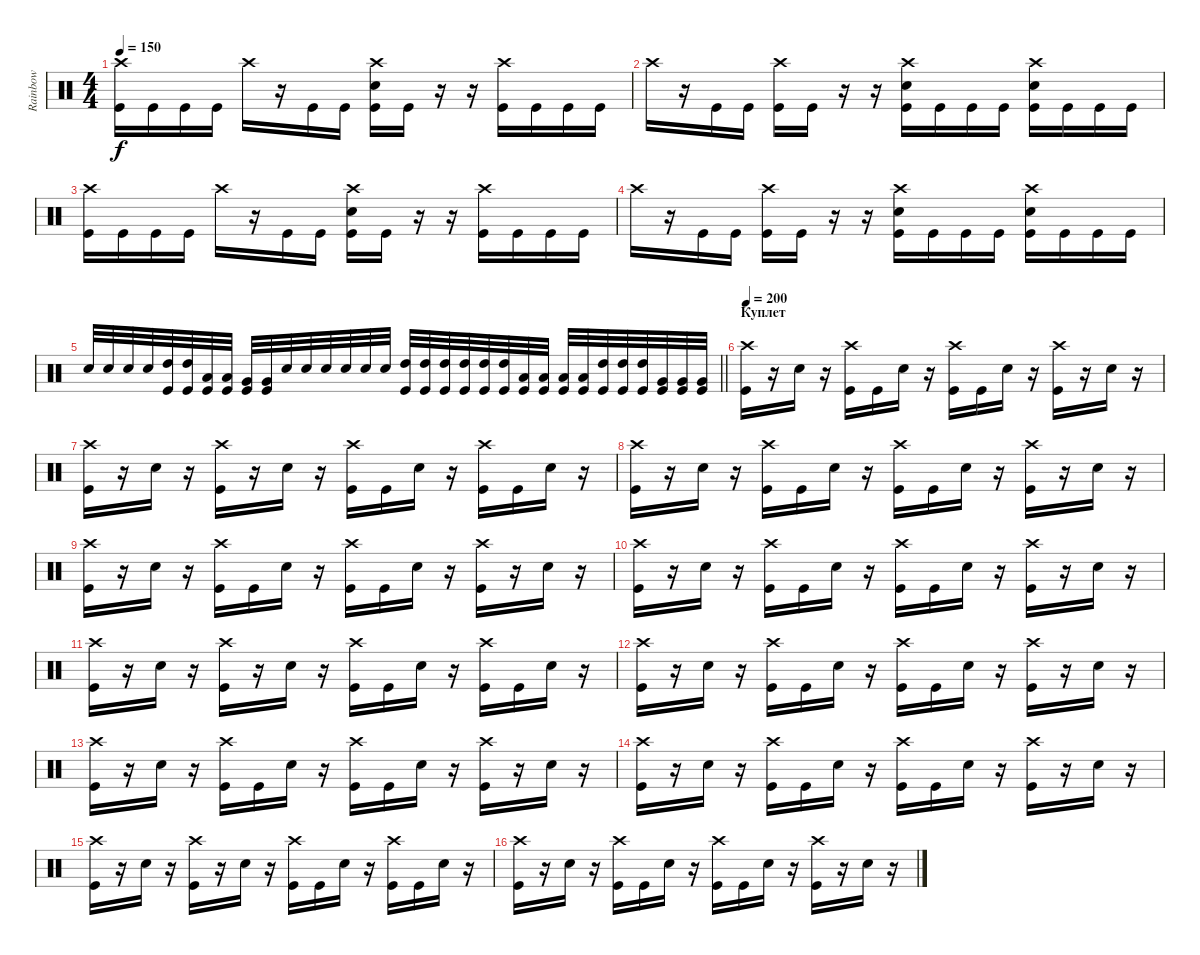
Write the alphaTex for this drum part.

\track ("Rainbow" "Rainbow") {instrument percussion}
\staff {score}
\articulation defaults
\ts (4 4)
\tempo 150
\clef neutral
\ks c
("Crash high (hit)" "Kick (hit)").16{dy f} "Kick (hit)".16 "Kick (hit)".16 "Kick (hit)".16 "Crash high (hit)".16 r.16 "Kick (hit)".16 "Kick (hit)".16 ("Crash high (hit)" "Electric Snare (hit)" "Kick (hit)").16 "Kick (hit)".16 r.16 r.16 ("Crash high (hit)" "Kick (hit)").16 "Kick (hit)".16 "Kick (hit)".16 "Kick (hit)".16 |
"Crash high (hit)".16 r.16 "Kick (hit)".16 "Kick (hit)".16 ("Crash high (hit)" "Kick (hit)").16 "Kick (hit)".16 r.16 r.16 ("Crash high (hit)" "Electric Snare (hit)" "Kick (hit)").16 "Kick (hit)".16 "Kick (hit)".16 "Kick (hit)".16 ("Crash high (hit)" "Electric Snare (hit)" "Kick (hit)").16 "Kick (hit)".16 "Kick (hit)".16 "Kick (hit)".16 |
("Crash high (hit)" "Kick (hit)").16 "Kick (hit)".16 "Kick (hit)".16 "Kick (hit)".16 "Crash high (hit)".16 r.16 "Kick (hit)".16 "Kick (hit)".16 ("Crash high (hit)" "Electric Snare (hit)" "Kick (hit)").16 "Kick (hit)".16 r.16 r.16 ("Crash high (hit)" "Kick (hit)").16 "Kick (hit)".16 "Kick (hit)".16 "Kick (hit)".16 |
"Crash high (hit)".16 r.16 "Kick (hit)".16 "Kick (hit)".16 ("Crash high (hit)" "Kick (hit)").16 "Kick (hit)".16 r.16 r.16 ("Crash high (hit)" "Electric Snare (hit)" "Kick (hit)").16 "Kick (hit)".16 "Kick (hit)".16 "Kick (hit)".16 ("Crash high (hit)" "Electric Snare (hit)" "Kick (hit)").16 "Kick (hit)".16 "Kick (hit)".16 "Kick (hit)".16 |
\barLineRight lightlight "Electric Snare (hit)".32 "Electric Snare (hit)".32 "Electric Snare (hit)".32 "Electric Snare (hit)".32
("High Tom (hit)" "Kick (hit)").32 ("High Tom (hit)" "Kick (hit)").32 ("Low Tom (hit)" "Kick (hit)").32 ("Low Tom (hit)" "Kick (hit)").32 ("Very Low Tom (hit)" "Kick (hit)").32 ("Very Low Tom (hit)" "Kick (hit)").32 "Electric Snare (hit)".32 "Electric Snare (hit)".32 "Electric Snare (hit)".32 "Electric Snare (hit)".32 "Electric Snare (hit)".32 "Electric Snare (hit)".32 ("High Tom (hit)" "Kick (hit)").32 ("High Tom (hit)" "Kick (hit)").32 ("High Tom (hit)" "Kick (hit)").32 ("High Tom (hit)" "Kick (hit)").32 ("High Tom (hit)" "Kick (hit)").32 ("High Tom (hit)" "Kick (hit)").32 ("Low Tom (hit)" "Kick (hit)").32 ("Low Tom (hit)" "Kick (hit)").32 ("Low Tom (hit)" "Kick (hit)").32 ("Low Tom (hit)" "Kick (hit)").32 ("High Tom (hit)" "Kick (hit)").32 ("High Tom (hit)" "Kick (hit)").32 ("High Tom (hit)" "Kick (hit)").32 ("Very Low Tom (hit)" "Kick (hit)").32 ("Very Low Tom (hit)" "Kick (hit)").32 ("Very Low Tom (hit)" "Kick (hit)").32 |
\section ("" "Куплет")
\tempo 200
("Crash high (hit)" "Kick (hit)").16 r.16 "Electric Snare (hit)".16 r.16 ("Crash high (hit)" "Kick (hit)").16 "Kick (hit)".16 "Electric Snare (hit)".16 r.16 ("Crash high (hit)" "Kick (hit)").16 "Kick (hit)".16 "Electric Snare (hit)".16 r.16 ("Crash high (hit)" "Kick (hit)").16 r.16 "Electric Snare (hit)".16 r.16 |
("Crash high (hit)" "Kick (hit)").16 r.16 "Electric Snare (hit)".16 r.16 ("Crash high (hit)" "Kick (hit)").16 r.16 "Electric Snare (hit)".16 r.16 ("Crash high (hit)" "Kick (hit)").16 "Kick (hit)".16 "Electric Snare (hit)".16 r.16 ("Crash high (hit)" "Kick (hit)").16 "Kick (hit)".16 "Electric Snare (hit)".16 r.16 |
("Crash high (hit)" "Kick (hit)").16 r.16 "Electric Snare (hit)".16 r.16 ("Crash high (hit)" "Kick (hit)").16 "Kick (hit)".16 "Electric Snare (hit)".16 r.16 ("Crash high (hit)" "Kick (hit)").16 "Kick (hit)".16 "Electric Snare (hit)".16 r.16 ("Crash high (hit)" "Kick (hit)").16 r.16 "Electric Snare (hit)".16 r.16 |
("Crash high (hit)" "Kick (hit)").16 r.16 "Electric Snare (hit)".16 r.16 ("Crash high (hit)" "Kick (hit)").16 "Kick (hit)".16 "Electric Snare (hit)".16 r.16 ("Crash high (hit)" "Kick (hit)").16 "Kick (hit)".16 "Electric Snare (hit)".16 r.16 ("Crash high (hit)" "Kick (hit)").16 r.16 "Electric Snare (hit)".16 r.16 |
("Crash high (hit)" "Kick (hit)").16 r.16 "Electric Snare (hit)".16 r.16 ("Crash high (hit)" "Kick (hit)").16 "Kick (hit)".16 "Electric Snare (hit)".16 r.16 ("Crash high (hit)" "Kick (hit)").16 "Kick (hit)".16 "Electric Snare (hit)".16 r.16 ("Crash high (hit)" "Kick (hit)").16 r.16 "Electric Snare (hit)".16 r.16 |
("Crash high (hit)" "Kick (hit)").16 r.16 "Electric Snare (hit)".16 r.16 ("Crash high (hit)" "Kick (hit)").16 r.16 "Electric Snare (hit)".16 r.16 ("Crash high (hit)" "Kick (hit)").16 "Kick (hit)".16 "Electric Snare (hit)".16 r.16 ("Crash high (hit)" "Kick (hit)").16 "Kick (hit)".16 "Electric Snare (hit)".16 r.16 |
("Crash high (hit)" "Kick (hit)").16 r.16 "Electric Snare (hit)".16 r.16 ("Crash high (hit)" "Kick (hit)").16 "Kick (hit)".16 "Electric Snare (hit)".16 r.16 ("Crash high (hit)" "Kick (hit)").16 "Kick (hit)".16 "Electric Snare (hit)".16 r.16 ("Crash high (hit)" "Kick (hit)").16 r.16 "Electric Snare (hit)".16 r.16 |
("Crash high (hit)" "Kick (hit)").16 r.16 "Electric Snare (hit)".16 r.16 ("Crash high (hit)" "Kick (hit)").16 "Kick (hit)".16 "Electric Snare (hit)".16 r.16 ("Crash high (hit)" "Kick (hit)").16 "Kick (hit)".16 "Electric Snare (hit)".16 r.16 ("Crash high (hit)" "Kick (hit)").16 r.16 "Electric Snare (hit)".16 r.16 |
("Crash high (hit)" "Kick (hit)").16 r.16 "Electric Snare (hit)".16 r.16 ("Crash high (hit)" "Kick (hit)").16 "Kick (hit)".16 "Electric Snare (hit)".16 r.16 ("Crash high (hit)" "Kick (hit)").16 "Kick (hit)".16 "Electric Snare (hit)".16 r.16 ("Crash high (hit)" "Kick (hit)").16 r.16 "Electric Snare (hit)".16 r.16 |
("Crash high (hit)" "Kick (hit)").16 r.16 "Electric Snare (hit)".16 r.16 ("Crash high (hit)" "Kick (hit)").16 r.16 "Electric Snare (hit)".16 r.16 ("Crash high (hit)" "Kick (hit)").16 "Kick (hit)".16 "Electric Snare (hit)".16 r.16 ("Crash high (hit)" "Kick (hit)").16 "Kick (hit)".16 "Electric Snare (hit)".16 r.16 |
("Crash high (hit)" "Kick (hit)").16 r.16 "Electric Snare (hit)".16 r.16 ("Crash high (hit)" "Kick (hit)").16 "Kick (hit)".16 "Electric Snare (hit)".16 r.16 ("Crash high (hit)" "Kick (hit)").16 "Kick (hit)".16 "Electric Snare (hit)".16 r.16 ("Crash high (hit)" "Kick (hit)").16 r.16 "Electric Snare (hit)".16 r.16
